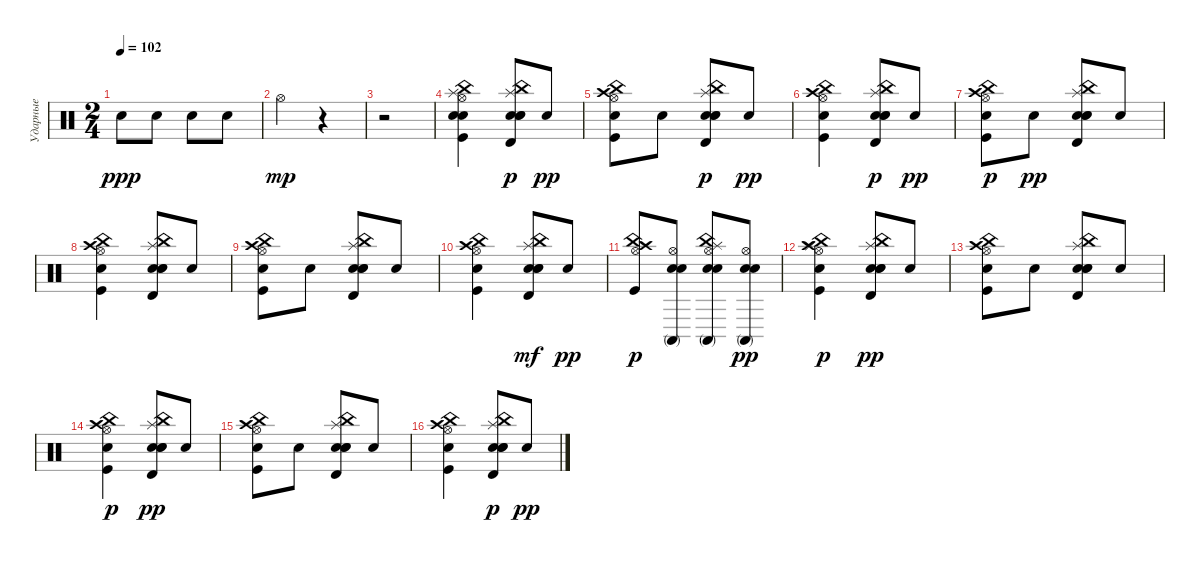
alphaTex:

\track ("Ударные" "Ударные") {instrument percussion}
\staff {score}
\articulation defaults
\ts (2 4)
\tempo 102
\clef neutral
\ks c "Hand Clap (hit)".8{dy ppp} "Hand Clap (hit)".8 "Hand Clap (hit)".8 "Hand Clap (hit)".8
|
"Hi-Hat (open)".4{dy mp} r.4 |
r.2 |
("Hi-Hat (open)" "Snare (hit) 2" "Kick (hit)" "Hand Clap (hit)" "China (hit)" "Splash (hit)").4 ("China (hit)" "Snare (hit) 2" "Hand Clap (hit)" "Splash (hit)" "Electric Snare (hit)" "Timbale high (hit)").8{dy p} "Hand Clap (hit)".8{dy pp} |
("Hi-Hat (open)" "China (hit)" "Kick (hit)" "Crash high (hit)" "Hand Clap (hit)").8 "Hand Clap (hit)".8 ("Splash (hit)" "Electric Snare (hit)" "Hand Clap (hit)" "China (hit)" "Snare (hit) 2" "Timbale high (hit)").8{dy p} "Hand Clap (hit)".8{dy pp} |
("Kick (hit)" "Hand Clap (hit)" "China (hit)" "Hi-Hat (open)" "Crash high (hit)").4 ("Splash (hit)" "Electric Snare (hit)" "Hand Clap (hit)" "Snare (hit) 2" "China (hit)" "Timbale high (hit)").8{dy p} "Hand Clap (hit)".8{dy pp} |
("Crash high (hit)" "Hand Clap (hit)" "Kick (hit)" "Hi-Hat (open)" "China (hit)").8{dy p} "Hand Clap (hit)".8{dy pp} ("Snare (hit) 2" "Timbale high (hit)" "Electric Snare (hit)" "Splash (hit)" "China (hit)" "Hand Clap (hit)").8 "Hand Clap (hit)".8 |
("Hi-Hat (open)" "China (hit)" "Kick (hit)" "Hand Clap (hit)" "Crash high (hit)").4 ("Snare (hit) 2" "Electric Snare (hit)" "Timbale high (hit)" "China (hit)" "Splash (hit)" "Hand Clap (hit)").8 "Hand Clap (hit)".8 |
("Hi-Hat (open)" "China (hit)" "Kick (hit)" "Hand Clap (hit)" "Crash high (hit)").8 "Hand Clap (hit)".8 ("China (hit)" "Snare (hit) 2" "Splash (hit)" "Electric Snare (hit)" "Timbale high (hit)" "Hand Clap (hit)").8 "Hand Clap (hit)".8 |
("Kick (hit)" "Hand Clap (hit)" "Hi-Hat (open)" "China (hit)" "Crash high (hit)").4 ("China (hit)" "Splash (hit)" "Hand Clap (hit)" "Timbale high (hit)" "Snare (hit) 2" "Electric Snare (hit)").8{dy mf} "Hand Clap (hit)".8{dy pp} |
("Crash high (hit)" "Kick (hit)" "Hi-Hat (open)" "China (hit)").8{dy p} ("Snare (hit) 2" "Electric Snare (hit)" "Hi-Hat (open)" "Conga high (mute)").8 ("China (hit)" "Splash (hit)" "Hi-Hat (open)" "Electric Snare (hit)" "Conga high (mute)" "Snare (hit) 2").8 ("Hi-Hat (open)" "Electric Snare (hit)" "Snare (hit) 2" "Conga high (mute)").8{dy pp} |
("Hi-Hat (open)" "China (hit)" "Splash (hit)" "Crash high (hit)" "Hand Clap (hit)" "Kick (hit)").4{dy p} ("Splash (hit)" "China (hit)" "Snare (hit) 2" "Timbale high (hit)" "Electric Snare (hit)" "Hand Clap (hit)").8{dy pp} "Hand Clap (hit)".8 |
("Hi-Hat (open)" "Kick (hit)" "Crash high (hit)" "China (hit)" "Hand Clap (hit)").8 "Hand Clap (hit)".8 ("Snare (hit) 2" "Electric Snare (hit)" "Splash (hit)" "China (hit)" "Timbale high (hit)" "Hand Clap (hit)").8 "Hand Clap (hit)".8 |
("Kick (hit)" "Hi-Hat (open)" "Crash high (hit)" "Hand Clap (hit)" "China (hit)").4{dy p} ("Snare (hit) 2" "Splash (hit)" "China (hit)" "Timbale high (hit)" "Electric Snare (hit)" "Hand Clap (hit)").8{dy pp} "Hand Clap (hit)".8 |
("Kick (hit)" "China (hit)" "Hi-Hat (open)" "Hand Clap (hit)" "Crash high (hit)").8 "Hand Clap (hit)".8 ("Splash (hit)" "China (hit)" "Timbale high (hit)" "Electric Snare (hit)" "Hand Clap (hit)" "Snare (hit) 2").8 "Hand Clap (hit)".8 |
("Kick (hit)" "China (hit)" "Hand Clap (hit)" "Crash high (hit)" "Hi-Hat (open)").4 ("Splash (hit)" "Snare (hit) 2" "Timbale high (hit)" "Electric Snare (hit)" "Hand Clap (hit)" "China (hit)").8{dy p} "Hand Clap (hit)".8{dy pp}
